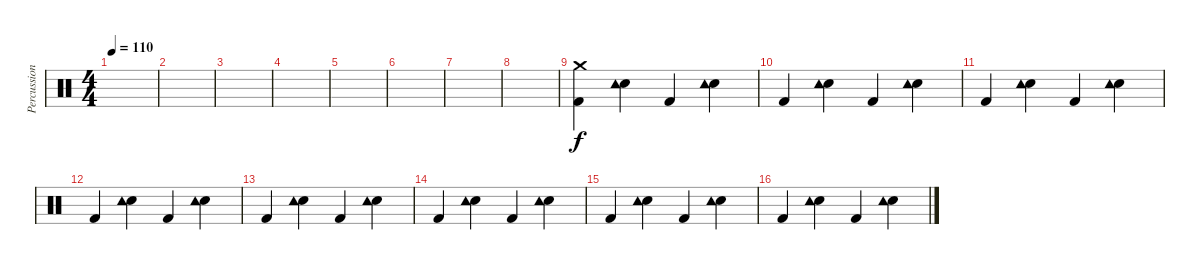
\track ("Percussion" "Percussion") {instrument percussion}
\staff {score}
\articulation defaults
\ts (4 4)
\tempo 110
\clef neutral
\ks c
|
|
|
|
|
|
|
|
("Kick (hit) 2" "Crash medium (hit)").4 ("Electric Snare (hit)" "Tambourine (hit)").4 "Kick (hit) 2".4 ("Electric Snare (hit)" "Tambourine (hit)").4 |
"Kick (hit) 2".4 ("Electric Snare (hit)" "Tambourine (hit)").4 "Kick (hit) 2".4 ("Electric Snare (hit)" "Tambourine (hit)").4 |
"Kick (hit) 2".4 ("Electric Snare (hit)" "Tambourine (hit)").4 "Kick (hit) 2".4 ("Electric Snare (hit)" "Tambourine (hit)").4 |
"Kick (hit) 2".4 ("Electric Snare (hit)" "Tambourine (hit)").4 "Kick (hit) 2".4 ("Electric Snare (hit)" "Tambourine (hit)").4 |
"Kick (hit) 2".4 ("Electric Snare (hit)" "Tambourine (hit)").4 "Kick (hit) 2".4 ("Electric Snare (hit)" "Tambourine (hit)").4 |
"Kick (hit) 2".4 ("Electric Snare (hit)" "Tambourine (hit)").4 "Kick (hit) 2".4 ("Electric Snare (hit)" "Tambourine (hit)").4 |
"Kick (hit) 2".4 ("Electric Snare (hit)" "Tambourine (hit)").4 "Kick (hit) 2".4 ("Electric Snare (hit)" "Tambourine (hit)").4 |
"Kick (hit) 2".4 ("Electric Snare (hit)" "Tambourine (hit)").4 "Kick (hit) 2".4 ("Electric Snare (hit)" "Tambourine (hit)").4
